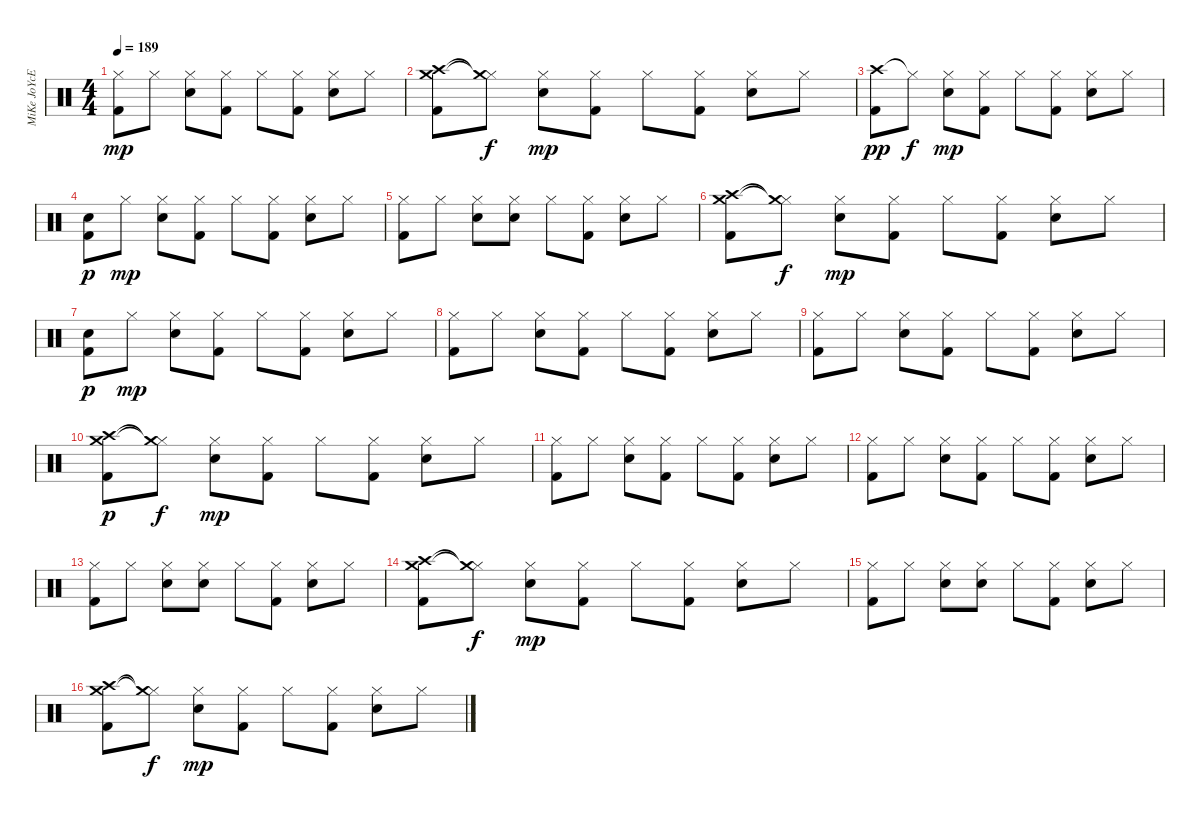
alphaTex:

\track ("MiKe JoYcE" "MiKe JoYcE") {instrument percussion}
\staff {score}
\articulation defaults
\ts (4 4)
\tempo 189
\clef neutral
\ks c
("Hi-Hat (closed)" "Kick (hit) 2").8{dy mp} "Hi-Hat (closed)".8 ("Hi-Hat (closed)" "Electric Snare (hit)").8 ("Hi-Hat (closed)" "Kick (hit) 2").8 "Hi-Hat (closed)".8 ("Hi-Hat (closed)" "Kick (hit) 2").8 ("Hi-Hat (closed)" "Electric Snare (hit)").8 "Hi-Hat (closed)".8 |
("Crash high (hit)" "Crash medium (hit)" "Kick (hit) 2").8 ("Hi-Hat (closed)"{t} "Crash medium (hit)"{t}).8{dy f} ("Hi-Hat (closed)" "Electric Snare (hit)").8{dy mp} ("Hi-Hat (closed)" "Kick (hit) 2").8 "Hi-Hat (closed)".8 ("Hi-Hat (closed)" "Kick (hit) 2").8 ("Hi-Hat (closed)" "Electric Snare (hit)").8 "Hi-Hat (closed)".8 |
("Crash high (hit)" "Kick (hit) 2").8{dy pp} "Hi-Hat (closed)"{t}.8{dy f} ("Hi-Hat (closed)" "Electric Snare (hit)").8{dy mp} ("Hi-Hat (closed)" "Kick (hit) 2").8 "Hi-Hat (closed)".8 ("Hi-Hat (closed)" "Kick (hit) 2").8 ("Hi-Hat (closed)" "Electric Snare (hit)").8 "Hi-Hat (closed)".8 |
("Metronome (bell)" "Kick (hit) 2").8{dy p} "Hi-Hat (closed)".8{dy mp} ("Hi-Hat (closed)" "Electric Snare (hit)").8 ("Hi-Hat (closed)" "Kick (hit) 2").8 "Hi-Hat (closed)".8 ("Hi-Hat (closed)" "Kick (hit) 2").8 ("Hi-Hat (closed)" "Electric Snare (hit)").8 "Hi-Hat (closed)".8 |
("Hi-Hat (closed)" "Kick (hit) 2").8 "Hi-Hat (closed)".8 ("Hi-Hat (closed)" "Electric Snare (hit)").8 ("Hi-Hat (closed)" "Electric Snare (hit)").8 "Hi-Hat (closed)".8 ("Hi-Hat (closed)" "Kick (hit) 2").8 ("Hi-Hat (closed)" "Electric Snare (hit)").8 "Hi-Hat (closed)".8 |
("Crash high (hit)" "Crash medium (hit)" "Kick (hit) 2").8 ("Hi-Hat (closed)"{t} "Crash medium (hit)"{t}).8{dy f} ("Hi-Hat (closed)" "Electric Snare (hit)").8{dy mp} ("Hi-Hat (closed)" "Kick (hit) 2").8 "Hi-Hat (closed)".8 ("Hi-Hat (closed)" "Kick (hit) 2").8 ("Hi-Hat (closed)" "Electric Snare (hit)").8 "Hi-Hat (closed)".8 |
("Metronome (bell)" "Kick (hit) 2").8{dy p} "Hi-Hat (closed)".8{dy mp} ("Hi-Hat (closed)" "Electric Snare (hit)").8 ("Hi-Hat (closed)" "Kick (hit) 2").8 "Hi-Hat (closed)".8 ("Hi-Hat (closed)" "Kick (hit) 2").8 ("Hi-Hat (closed)" "Electric Snare (hit)").8 "Hi-Hat (closed)".8 |
("Hi-Hat (closed)" "Kick (hit) 2").8 "Hi-Hat (closed)".8 ("Hi-Hat (closed)" "Electric Snare (hit)").8 ("Hi-Hat (closed)" "Kick (hit) 2").8 "Hi-Hat (closed)".8 ("Hi-Hat (closed)" "Kick (hit) 2").8 ("Hi-Hat (closed)" "Electric Snare (hit)").8 "Hi-Hat (closed)".8 |
("Hi-Hat (closed)" "Kick (hit) 2").8 "Hi-Hat (closed)".8 ("Hi-Hat (closed)" "Electric Snare (hit)").8 ("Hi-Hat (closed)" "Kick (hit) 2").8 "Hi-Hat (closed)".8 ("Hi-Hat (closed)" "Kick (hit) 2").8 ("Hi-Hat (closed)" "Electric Snare (hit)").8 "Hi-Hat (closed)".8 |
("Crash high (hit)" "Crash medium (hit)" "Kick (hit) 2").8{dy p} ("Hi-Hat (closed)"{t} "Crash medium (hit)"{t}).8{dy f} ("Hi-Hat (closed)" "Electric Snare (hit)").8{dy mp} ("Hi-Hat (closed)" "Kick (hit) 2").8 "Hi-Hat (closed)".8 ("Hi-Hat (closed)" "Kick (hit) 2").8 ("Hi-Hat (closed)" "Electric Snare (hit)").8 "Hi-Hat (closed)".8 |
("Hi-Hat (closed)" "Kick (hit) 2").8 "Hi-Hat (closed)".8 ("Hi-Hat (closed)" "Electric Snare (hit)").8 ("Hi-Hat (closed)" "Kick (hit) 2").8 "Hi-Hat (closed)".8 ("Hi-Hat (closed)" "Kick (hit) 2").8 ("Hi-Hat (closed)" "Electric Snare (hit)").8 "Hi-Hat (closed)".8 |
("Hi-Hat (closed)" "Kick (hit) 2").8 "Hi-Hat (closed)".8 ("Hi-Hat (closed)" "Electric Snare (hit)").8 ("Hi-Hat (closed)" "Kick (hit) 2").8 "Hi-Hat (closed)".8 ("Hi-Hat (closed)" "Kick (hit) 2").8 ("Hi-Hat (closed)" "Electric Snare (hit)").8 "Hi-Hat (closed)".8 |
("Hi-Hat (closed)" "Kick (hit) 2").8 "Hi-Hat (closed)".8 ("Hi-Hat (closed)" "Electric Snare (hit)").8 ("Hi-Hat (closed)" "Electric Snare (hit)").8 "Hi-Hat (closed)".8 ("Hi-Hat (closed)" "Kick (hit) 2").8 ("Hi-Hat (closed)" "Electric Snare (hit)").8 "Hi-Hat (closed)".8 |
("Crash high (hit)" "Crash medium (hit)" "Kick (hit) 2").8 ("Hi-Hat (closed)"{t} "Crash medium (hit)"{t}).8{dy f} ("Hi-Hat (closed)" "Electric Snare (hit)").8{dy mp} ("Hi-Hat (closed)" "Kick (hit) 2").8 "Hi-Hat (closed)".8 ("Hi-Hat (closed)" "Kick (hit) 2").8 ("Hi-Hat (closed)" "Electric Snare (hit)").8 "Hi-Hat (closed)".8 |
("Hi-Hat (closed)" "Kick (hit) 2").8 "Hi-Hat (closed)".8 ("Hi-Hat (closed)" "Electric Snare (hit)").8 ("Hi-Hat (closed)" "Electric Snare (hit)").8 "Hi-Hat (closed)".8 ("Hi-Hat (closed)" "Kick (hit) 2").8 ("Hi-Hat (closed)" "Electric Snare (hit)").8 "Hi-Hat (closed)".8 |
("Crash high (hit)" "Crash medium (hit)" "Kick (hit) 2").8 ("Hi-Hat (closed)"{t} "Crash medium (hit)"{t}).8{dy f} ("Hi-Hat (closed)" "Electric Snare (hit)").8{dy mp} ("Hi-Hat (closed)" "Kick (hit) 2").8 "Hi-Hat (closed)".8 ("Hi-Hat (closed)" "Kick (hit) 2").8 ("Hi-Hat (closed)" "Electric Snare (hit)").8 "Hi-Hat (closed)".8
